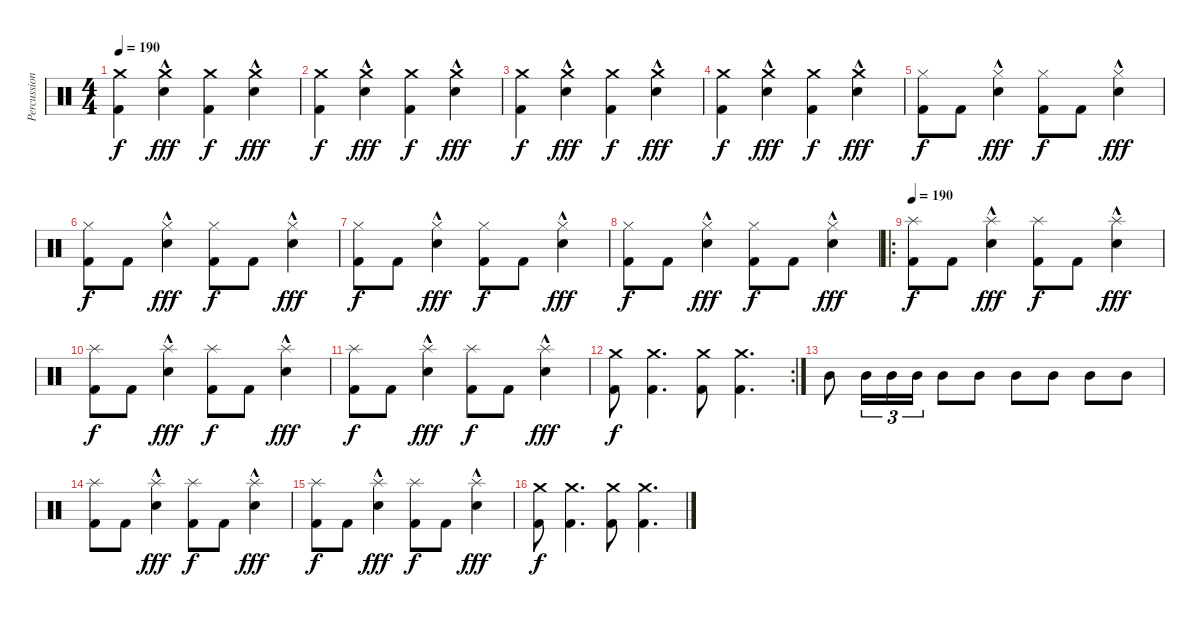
\track ("Percussion" "Percussion") {instrument percussion}
\staff {score}
\articulation defaults
\ts (4 4)
\tempo 190
\clef neutral
\ks c
("Crash medium (hit)" "Kick (hit) 2").4{dy f} ("Crash medium (hit)" "Snare (hit) 2"{hac}).4{dy fff} ("Crash medium (hit)" "Kick (hit) 2").4{dy f} ("Crash medium (hit)" "Snare (hit) 2"{hac}).4{dy fff} |
("Crash medium (hit)" "Kick (hit) 2").4{dy f} ("Crash medium (hit)" "Snare (hit) 2"{hac}).4{dy fff} ("Crash medium (hit)" "Kick (hit) 2").4{dy f} ("Crash medium (hit)" "Snare (hit) 2"{hac}).4{dy fff} |
("Crash medium (hit)" "Kick (hit) 2").4{dy f} ("Crash medium (hit)" "Snare (hit) 2"{hac}).4{dy fff} ("Crash medium (hit)" "Kick (hit) 2").4{dy f} ("Crash medium (hit)" "Snare (hit) 2"{hac}).4{dy fff} |
("Crash medium (hit)" "Kick (hit) 2").4{dy f} ("Crash medium (hit)" "Snare (hit) 2"{hac}).4{dy fff} ("Crash medium (hit)" "Kick (hit) 2").4{dy f} ("Crash medium (hit)" "Snare (hit) 2"{hac}).4{dy fff} |
("Hi-Hat (closed)" "Kick (hit) 2").8{dy f} "Kick (hit) 2".8 ("Hi-Hat (closed)" "Snare (hit) 2"{hac}).4{dy fff} ("Hi-Hat (closed)" "Kick (hit) 2").8{dy f} "Kick (hit) 2".8 ("Hi-Hat (closed)" "Snare (hit) 2"{hac}).4{dy fff} |
("Hi-Hat (closed)" "Kick (hit) 2").8{dy f} "Kick (hit) 2".8 ("Hi-Hat (closed)" "Snare (hit) 2"{hac}).4{dy fff} ("Hi-Hat (closed)" "Kick (hit) 2").8{dy f} "Kick (hit) 2".8 ("Hi-Hat (closed)" "Snare (hit) 2"{hac}).4{dy fff} |
("Hi-Hat (closed)" "Kick (hit) 2").8{dy f} "Kick (hit) 2".8 ("Hi-Hat (closed)" "Snare (hit) 2"{hac}).4{dy fff} ("Hi-Hat (closed)" "Kick (hit) 2").8{dy f} "Kick (hit) 2".8 ("Hi-Hat (closed)" "Snare (hit) 2"{hac}).4{dy fff} |
("Hi-Hat (closed)" "Kick (hit) 2").8{dy f} "Kick (hit) 2".8 ("Hi-Hat (closed)" "Snare (hit) 2"{hac}).4{dy fff} ("Hi-Hat (closed)" "Kick (hit) 2").8{dy f} "Kick (hit) 2".8 ("Hi-Hat (closed)" "Snare (hit) 2"{hac}).4{dy fff} |
\ro
\tempo 190
("Splash (hit)" "Kick (hit) 2").8{dy f} "Kick (hit) 2".8 ("Splash (hit)" "Snare (hit) 2"{hac}).4{dy fff} ("Splash (hit)" "Kick (hit) 2").8{dy f} "Kick (hit) 2".8 ("Splash (hit)" "Snare (hit) 2"{hac}).4{dy fff} |
("Splash (hit)" "Kick (hit) 2").8{dy f} "Kick (hit) 2".8 ("Splash (hit)" "Snare (hit) 2"{hac}).4{dy fff} ("Splash (hit)" "Kick (hit) 2").8{dy f} "Kick (hit) 2".8 ("Splash (hit)" "Snare (hit) 2"{hac}).4{dy fff} |
("Splash (hit)" "Kick (hit) 2").8{dy f} "Kick (hit) 2".8 ("Splash (hit)" "Snare (hit) 2"{hac}).4{dy fff} ("Splash (hit)" "Kick (hit) 2").8{dy f} "Kick (hit) 2".8 ("Splash (hit)" "Snare (hit) 2"{hac}).4{dy fff} |
\rc 2
("Crash medium (hit)" "Kick (hit) 2").8{dy f} ("Crash medium (hit)" "Kick (hit) 2").4{d} ("Crash medium (hit)" "Kick (hit) 2").8 ("Crash medium (hit)" "Kick (hit) 2").4{d} |
"Mid Tom (hit)".8 "Mid Tom (hit)".16{tu (3 2)} "Mid Tom (hit)".16{tu (3 2)} "Mid Tom (hit)".16{tu (3 2)} "Mid Tom (hit)".8 "Mid Tom (hit)".8 "Mid Tom (hit)".8 "Mid Tom (hit)".8 "Mid Tom (hit)".8 "Mid Tom (hit)".8 |
("Splash (hit)" "Kick (hit) 2").8 "Kick (hit) 2".8 ("Splash (hit)" "Snare (hit) 2"{hac}).4{dy fff} ("Splash (hit)" "Kick (hit) 2").8{dy f} "Kick (hit) 2".8 ("Splash (hit)" "Snare (hit) 2"{hac}).4{dy fff} |
("Splash (hit)" "Kick (hit) 2").8{dy f} "Kick (hit) 2".8 ("Splash (hit)" "Snare (hit) 2"{hac}).4{dy fff} ("Splash (hit)" "Kick (hit) 2").8{dy f} "Kick (hit) 2".8 ("Splash (hit)" "Snare (hit) 2"{hac}).4{dy fff} |
("Crash medium (hit)" "Kick (hit) 2").8{dy f} ("Crash medium (hit)" "Kick (hit) 2").4{d} ("Crash medium (hit)" "Kick (hit) 2").8 ("Crash medium (hit)" "Kick (hit) 2").4{d}
